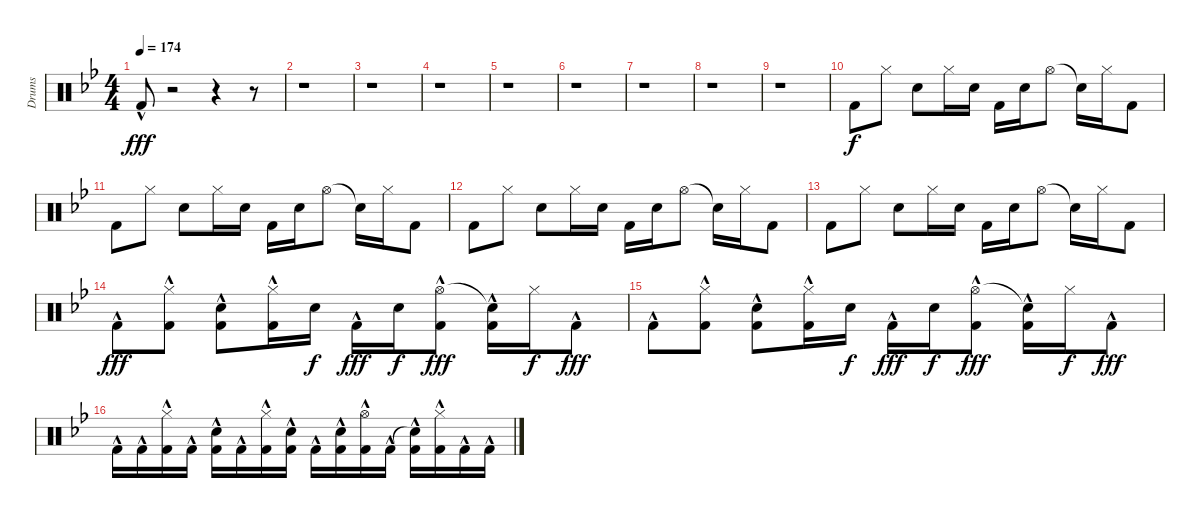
\track ("Drums" "Drums") {instrument percussion}
\staff {score}
\articulation defaults
\ts (4 4)
\tempo 174
\clef neutral
\ks gminor "Kick (hit) 2"{hac}.8{dy fff}
r.2 r.4 r.8 |
r.1 |
r.1 |
r.1 |
r.1 |
r.1 |
r.1 |
r.1 |
r.1 |
"Kick (hit) 2".8{dy f} "Hi-Hat (closed)".8 "Hand Clap (hit)".8 "Hi-Hat (closed)".16 "Snare (hit) 2".16 "Kick (hit) 2".16 "Snare (hit) 2".16 "Hi-Hat (open)".8 "Snare (hit)"{t}.16 "Hi-Hat (closed)".16 "Kick (hit) 2".8 |
"Kick (hit) 2".8 "Hi-Hat (closed)".8 "Hand Clap (hit)".8 "Hi-Hat (closed)".16 "Snare (hit) 2".16 "Kick (hit) 2".16 "Snare (hit) 2".16 "Hi-Hat (open)".8 "Snare (hit)"{t}.16 "Hi-Hat (closed)".16 "Kick (hit) 2".8 |
"Kick (hit) 2".8 "Hi-Hat (closed)".8 "Hand Clap (hit)".8 "Hi-Hat (closed)".16 "Snare (hit) 2".16 "Kick (hit) 2".16 "Snare (hit) 2".16 "Hi-Hat (open)".8 "Snare (hit)"{t}.16 "Hi-Hat (closed)".16 "Kick (hit) 2".8 |
"Kick (hit) 2".8 "Hi-Hat (closed)".8 "Hand Clap (hit)".8 "Hi-Hat (closed)".16 "Snare (hit) 2".16 "Kick (hit) 2".16 "Snare (hit) 2".16 "Hi-Hat (open)".8 "Snare (hit)"{t}.16 "Hi-Hat (closed)".16 "Kick (hit) 2".8 |
"Kick (hit) 2"{hac}.8{dy fff} ("Hi-Hat (closed)" "Kick (hit) 2"{hac}).8 ("Hand Clap (hit)" "Kick (hit) 2"{hac}).8 ("Hi-Hat (closed)" "Kick (hit) 2"{hac}).16 "Snare (hit) 2".16{dy f} "Kick (hit) 2"{hac}.16{dy fff} "Snare (hit) 2".16{dy f} ("Hi-Hat (open)" "Kick (hit) 2"{hac}).8{dy fff} ("Snare (hit)"{t} "Kick (hit) 2"{hac}).16 "Hi-Hat (closed)".16{dy f} "Kick (hit) 2"{hac}.8{dy fff} |
"Kick (hit) 2"{hac}.8 ("Hi-Hat (closed)" "Kick (hit) 2"{hac}).8 ("Hand Clap (hit)" "Kick (hit) 2"{hac}).8 ("Hi-Hat (closed)" "Kick (hit) 2"{hac}).16 "Snare (hit) 2".16{dy f} "Kick (hit) 2"{hac}.16{dy fff} "Snare (hit) 2".16{dy f} ("Hi-Hat (open)" "Kick (hit) 2"{hac}).8{dy fff} ("Snare (hit)"{t} "Kick (hit) 2"{hac}).16 "Hi-Hat (closed)".16{dy f} "Kick (hit) 2"{hac}.8{dy fff} |
"Kick (hit) 2"{hac}.16 "Kick (hit) 2"{hac}.16 ("Hi-Hat (closed)" "Kick (hit) 2"{hac}).16 "Kick (hit) 2"{hac}.16 ("Hand Clap (hit)" "Kick (hit) 2"{hac}).16 "Kick (hit) 2"{hac}.16 ("Hi-Hat (closed)" "Kick (hit) 2"{hac}).16 ("Snare (hit) 2" "Kick (hit) 2"{hac}).16 "Kick (hit) 2"{hac}.16 ("Snare (hit) 2" "Kick (hit) 2"{hac}).16 ("Hi-Hat (open)" "Kick (hit) 2"{hac}).16 "Kick (hit) 2"{hac}.16 ("Snare (hit)"{t} "Kick (hit) 2"{hac}).16 ("Hi-Hat (closed)" "Kick (hit) 2"{hac}).16 "Kick (hit) 2"{hac}.16 "Kick (hit) 2"{hac}.16
